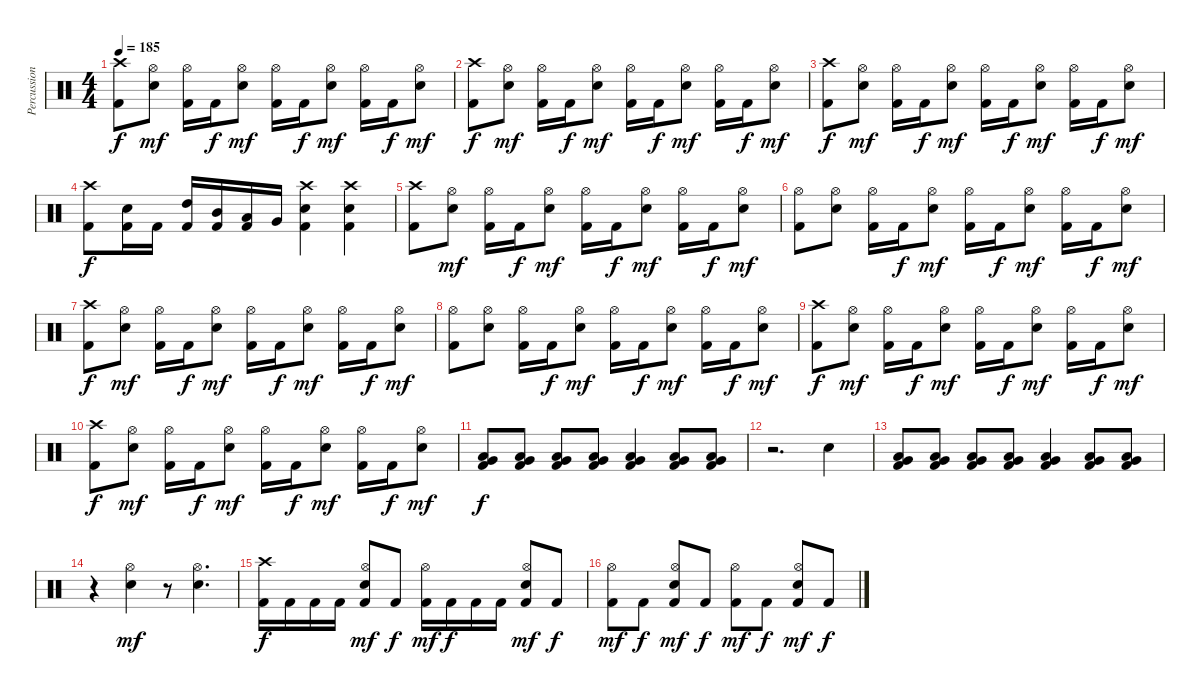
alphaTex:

\track ("Percussion" "Percussion") {instrument percussion}
\staff {score}
\articulation defaults
\ts (4 4)
\tempo 185
\clef neutral
\ks c
("Crash high (hit)" "Kick (hit) 2").8{dy f} ("Hi-Hat (open)" "Electric Snare (hit)").8{dy mf} ("Hi-Hat (open)" "Kick (hit) 2").16 "Kick (hit) 2".16{dy f} ("Hi-Hat (open)" "Electric Snare (hit)").8{dy mf} ("Hi-Hat (open)" "Kick (hit) 2").16 "Kick (hit) 2".16{dy f} ("Hi-Hat (open)" "Electric Snare (hit)").8{dy mf} ("Hi-Hat (open)" "Kick (hit) 2").16 "Kick (hit) 2".16{dy f} ("Hi-Hat (open)" "Electric Snare (hit)").8{dy mf} |
("Crash high (hit)" "Kick (hit) 2").8{dy f} ("Hi-Hat (open)" "Electric Snare (hit)").8{dy mf} ("Hi-Hat (open)" "Kick (hit) 2").16 "Kick (hit) 2".16{dy f} ("Hi-Hat (open)" "Electric Snare (hit)").8{dy mf} ("Hi-Hat (open)" "Kick (hit) 2").16 "Kick (hit) 2".16{dy f} ("Hi-Hat (open)" "Electric Snare (hit)").8{dy mf} ("Hi-Hat (open)" "Kick (hit) 2").16 "Kick (hit) 2".16{dy f} ("Hi-Hat (open)" "Electric Snare (hit)").8{dy mf} |
("Crash high (hit)" "Kick (hit) 2").8{dy f} ("Hi-Hat (open)" "Electric Snare (hit)").8{dy mf} ("Hi-Hat (open)" "Kick (hit) 2").16 "Kick (hit) 2".16{dy f} ("Hi-Hat (open)" "Electric Snare (hit)").8{dy mf} ("Hi-Hat (open)" "Kick (hit) 2").16 "Kick (hit) 2".16{dy f} ("Hi-Hat (open)" "Electric Snare (hit)").8{dy mf} ("Hi-Hat (open)" "Kick (hit) 2").16 "Kick (hit) 2".16{dy f} ("Hi-Hat (open)" "Electric Snare (hit)").8{dy mf} |
("Crash high (hit)" "Kick (hit) 2").8{dy f} ("Electric Snare (hit)" "Kick (hit) 2").16 "Kick (hit) 2".16 ("High Tom (hit)" "Kick (hit) 2").16 ("Mid Tom (hit)" "Kick (hit) 2").16 ("Low Tom (hit)" "Kick (hit) 2").16 "Very Low Tom (hit)".16 ("Crash high (hit)" "Electric Snare (hit)" "Kick (hit) 2").4 ("Crash high (hit)" "Electric Snare (hit)" "Kick (hit) 2").4 |
("Crash high (hit)" "Kick (hit) 2").8 ("Hi-Hat (open)" "Electric Snare (hit)").8{dy mf} ("Hi-Hat (open)" "Kick (hit) 2").16 "Kick (hit) 2".16{dy f} ("Hi-Hat (open)" "Electric Snare (hit)").8{dy mf} ("Hi-Hat (open)" "Kick (hit) 2").16 "Kick (hit) 2".16{dy f} ("Hi-Hat (open)" "Electric Snare (hit)").8{dy mf} ("Hi-Hat (open)" "Kick (hit) 2").16 "Kick (hit) 2".16{dy f} ("Hi-Hat (open)" "Electric Snare (hit)").8{dy mf} |
("Hi-Hat (open)" "Kick (hit) 2").8 ("Hi-Hat (open)" "Electric Snare (hit)").8 ("Hi-Hat (open)" "Kick (hit) 2").16 "Kick (hit) 2".16{dy f} ("Hi-Hat (open)" "Electric Snare (hit)").8{dy mf} ("Hi-Hat (open)" "Kick (hit) 2").16 "Kick (hit) 2".16{dy f} ("Hi-Hat (open)" "Electric Snare (hit)").8{dy mf} ("Hi-Hat (open)" "Kick (hit) 2").16 "Kick (hit) 2".16{dy f} ("Hi-Hat (open)" "Electric Snare (hit)").8{dy mf} |
("Crash high (hit)" "Kick (hit) 2").8{dy f} ("Hi-Hat (open)" "Electric Snare (hit)").8{dy mf} ("Hi-Hat (open)" "Kick (hit) 2").16 "Kick (hit) 2".16{dy f} ("Hi-Hat (open)" "Electric Snare (hit)").8{dy mf} ("Hi-Hat (open)" "Kick (hit) 2").16 "Kick (hit) 2".16{dy f} ("Hi-Hat (open)" "Electric Snare (hit)").8{dy mf} ("Hi-Hat (open)" "Kick (hit) 2").16 "Kick (hit) 2".16{dy f} ("Hi-Hat (open)" "Electric Snare (hit)").8{dy mf} |
("Hi-Hat (open)" "Kick (hit) 2").8 ("Hi-Hat (open)" "Electric Snare (hit)").8 ("Hi-Hat (open)" "Kick (hit) 2").16 "Kick (hit) 2".16{dy f} ("Hi-Hat (open)" "Electric Snare (hit)").8{dy mf} ("Hi-Hat (open)" "Kick (hit) 2").16 "Kick (hit) 2".16{dy f} ("Hi-Hat (open)" "Electric Snare (hit)").8{dy mf} ("Hi-Hat (open)" "Kick (hit) 2").16 "Kick (hit) 2".16{dy f} ("Hi-Hat (open)" "Electric Snare (hit)").8{dy mf} |
("Crash high (hit)" "Kick (hit) 2").8{dy f} ("Hi-Hat (open)" "Electric Snare (hit)").8{dy mf} ("Hi-Hat (open)" "Kick (hit) 2").16 "Kick (hit) 2".16{dy f} ("Hi-Hat (open)" "Electric Snare (hit)").8{dy mf} ("Hi-Hat (open)" "Kick (hit) 2").16 "Kick (hit) 2".16{dy f} ("Hi-Hat (open)" "Electric Snare (hit)").8{dy mf} ("Hi-Hat (open)" "Kick (hit) 2").16 "Kick (hit) 2".16{dy f} ("Hi-Hat (open)" "Electric Snare (hit)").8{dy mf} |
("Crash high (hit)" "Kick (hit) 2").8{dy f} ("Hi-Hat (open)" "Electric Snare (hit)").8{dy mf} ("Hi-Hat (open)" "Kick (hit) 2").16 "Kick (hit) 2".16{dy f} ("Hi-Hat (open)" "Electric Snare (hit)").8{dy mf} ("Hi-Hat (open)" "Kick (hit) 2").16 "Kick (hit) 2".16{dy f} ("Hi-Hat (open)" "Electric Snare (hit)").8{dy mf} ("Hi-Hat (open)" "Kick (hit) 2").16 "Kick (hit) 2".16{dy f} ("Hi-Hat (open)" "Electric Snare (hit)").8{dy mf} |
\section ("" "")
("Low Tom (hit)" "Very Low Tom (hit)" "Kick (hit) 2").8{dy f} ("Low Tom (hit)" "Very Low Tom (hit)" "Kick (hit) 2").8 ("Low Tom (hit)" "Very Low Tom (hit)" "Kick (hit) 2").8 ("Low Tom (hit)" "Very Low Tom (hit)" "Kick (hit) 2").8 ("Low Tom (hit)" "Very Low Tom (hit)" "Kick (hit) 2").4 ("Low Tom (hit)" "Very Low Tom (hit)" "Kick (hit) 2").8 ("Low Tom (hit)" "Very Low Tom (hit)" "Kick (hit) 2").8 |
r.2{d} "Electric Snare (hit)".4 |
("Low Tom (hit)" "Very Low Tom (hit)" "Kick (hit) 2").8 ("Low Tom (hit)" "Very Low Tom (hit)" "Kick (hit) 2").8 ("Low Tom (hit)" "Very Low Tom (hit)" "Kick (hit) 2").8 ("Low Tom (hit)" "Very Low Tom (hit)" "Kick (hit) 2").8 ("Low Tom (hit)" "Very Low Tom (hit)" "Kick (hit) 2").4 ("Low Tom (hit)" "Very Low Tom (hit)" "Kick (hit) 2").8 ("Low Tom (hit)" "Very Low Tom (hit)" "Kick (hit) 2").8 |
r.4 ("Hi-Hat (open)" "Electric Snare (hit)").4{dy mf} r.8 ("Hi-Hat (open)" "Electric Snare (hit)").4{d} |
\section ("" "")
("Crash high (hit)" "Kick (hit) 2").16{dy f} "Kick (hit) 2".16 "Kick (hit) 2".16 "Kick (hit) 2".16 ("Hi-Hat (open)" "Electric Snare (hit)" "Kick (hit) 2").8{dy mf} "Kick (hit) 2".8{dy f} ("Hi-Hat (open)" "Kick (hit) 2").16{dy mf} "Kick (hit) 2".16{dy f} "Kick (hit) 2".16 "Kick (hit) 2".16 ("Hi-Hat (open)" "Electric Snare (hit)" "Kick (hit) 2").8{dy mf} "Kick (hit) 2".8{dy f} |
("Hi-Hat (open)" "Kick (hit) 2").8{dy mf} "Kick (hit) 2".8{dy f} ("Hi-Hat (open)" "Electric Snare (hit)" "Kick (hit) 2").8{dy mf} "Kick (hit) 2".8{dy f} ("Hi-Hat (open)" "Kick (hit) 2").8{dy mf} "Kick (hit) 2".8{dy f} ("Hi-Hat (open)" "Electric Snare (hit)" "Kick (hit) 2").8{dy mf} "Kick (hit) 2".8{dy f}
